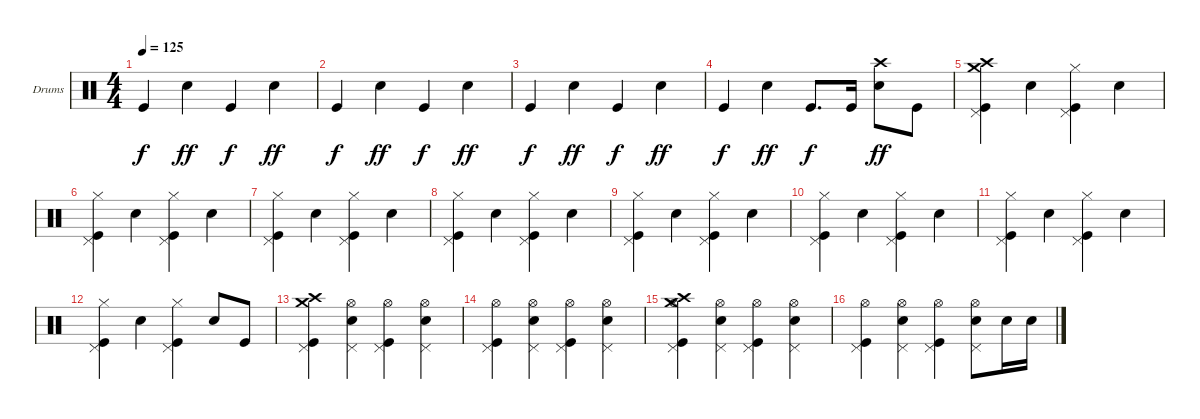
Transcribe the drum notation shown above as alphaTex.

\defaultSystemsLayout 4
\bracketExtendMode groupsimilarinstruments
\firstSystemTrackNameOrientation horizontal
\otherSystemsTrackNameOrientation horizontal
\track ("Drums" "Drums") {instrument percussion}
\staff {score}
\articulation defaults
\ts (4 4)
\tempo 125
\clef neutral
\ks c "Kick (hit)".4{dy f} "Snare (hit) 2".4{dy ff} "Kick (hit)".4{dy f} "Snare (hit) 2".4{dy ff}
|
"Kick (hit)".4{dy f} "Snare (hit) 2".4{dy ff} "Kick (hit)".4{dy f} "Snare (hit) 2".4{dy ff} |
"Kick (hit)".4{dy f} "Snare (hit) 2".4{dy ff} "Kick (hit)".4{dy f} "Snare (hit) 2".4{dy ff} |
"Kick (hit)".4{dy f} "Snare (hit) 2".4{dy ff} "Kick (hit)".8{d dy f} "Kick (hit)".16 ("Snare (hit) 2" "Crash high (hit)").8{dy ff} "Kick (hit)".8 |
("Kick (hit)" "Pedal Hi-Hat (hit)" "Crash medium (hit)" "Crash high (hit)").4 "Snare (hit) 2".4 ("Kick (hit)" "Pedal Hi-Hat (hit)" "Hi-Hat (closed)").4 "Snare (hit) 2".4 |
("Kick (hit)" "Pedal Hi-Hat (hit)" "Hi-Hat (closed)").4 "Snare (hit) 2".4 ("Kick (hit)" "Hi-Hat (closed)" "Pedal Hi-Hat (hit)").4 "Snare (hit) 2".4 |
("Kick (hit)" "Pedal Hi-Hat (hit)" "Hi-Hat (closed)").4 "Snare (hit) 2".4 ("Kick (hit)" "Hi-Hat (closed)" "Pedal Hi-Hat (hit)").4 "Snare (hit) 2".4 |
("Kick (hit)" "Pedal Hi-Hat (hit)" "Hi-Hat (closed)").4 "Snare (hit) 2".4 ("Kick (hit)" "Hi-Hat (closed)" "Pedal Hi-Hat (hit)").4 "Snare (hit) 2".4 |
("Kick (hit)" "Pedal Hi-Hat (hit)" "Hi-Hat (closed)").4 "Snare (hit) 2".4 ("Kick (hit)" "Hi-Hat (closed)" "Pedal Hi-Hat (hit)").4 "Snare (hit) 2".4 |
("Kick (hit)" "Pedal Hi-Hat (hit)" "Hi-Hat (closed)").4 "Snare (hit) 2".4 ("Kick (hit)" "Hi-Hat (closed)" "Pedal Hi-Hat (hit)").4 "Snare (hit) 2".4 |
("Kick (hit)" "Pedal Hi-Hat (hit)" "Hi-Hat (closed)").4 "Snare (hit) 2".4 ("Kick (hit)" "Hi-Hat (closed)" "Pedal Hi-Hat (hit)").4 "Snare (hit) 2".4 |
\scale
0.472222 ("Kick (hit)" "Pedal Hi-Hat (hit)" "Hi-Hat (closed)").4 "Snare (hit) 2".4 ("Kick (hit)" "Hi-Hat (closed)" "Pedal Hi-Hat (hit)").4 "Snare (hit) 2".8 "Kick (hit)".8 |
\scale
0.263889 ("Kick (hit)" "Pedal Hi-Hat (hit)" "Crash medium (hit)" "Crash high (hit)").4 ("Snare (hit) 2" "Pedal Hi-Hat (hit)" "Hi-Hat (open)").4 ("Kick (hit)" "Pedal Hi-Hat (hit)" "Hi-Hat (open)").4 ("Snare (hit) 2" "Pedal Hi-Hat (hit)" "Hi-Hat (open)").4 |
\scale
0.263889 ("Kick (hit)" "Pedal Hi-Hat (hit)" "Hi-Hat (open)").4 ("Snare (hit) 2" "Pedal Hi-Hat (hit)" "Hi-Hat (open)").4 ("Kick (hit)" "Pedal Hi-Hat (hit)" "Hi-Hat (open)").4 ("Snare (hit) 2" "Pedal Hi-Hat (hit)" "Hi-Hat (open)").4 |
\scale
0.333333 ("Kick (hit)" "Pedal Hi-Hat (hit)" "Hi-Hat (open)" "Crash high (hit)" "Crash medium (hit)").4 ("Snare (hit) 2" "Pedal Hi-Hat (hit)" "Hi-Hat (open)").4 ("Kick (hit)" "Pedal Hi-Hat (hit)" "Hi-Hat (open)").4 ("Snare (hit) 2" "Pedal Hi-Hat (hit)" "Hi-Hat (open)").4 |
\scale
0.333333 ("Kick (hit)" "Pedal Hi-Hat (hit)" "Hi-Hat (open)").4 ("Snare (hit) 2" "Pedal Hi-Hat (hit)" "Hi-Hat (open)").4 ("Kick (hit)" "Pedal Hi-Hat (hit)" "Hi-Hat (open)").4 ("Snare (hit) 2" "Pedal Hi-Hat (hit)" "Hi-Hat (open)").8 "Snare (hit) 2".16 "Snare (hit) 2".16
